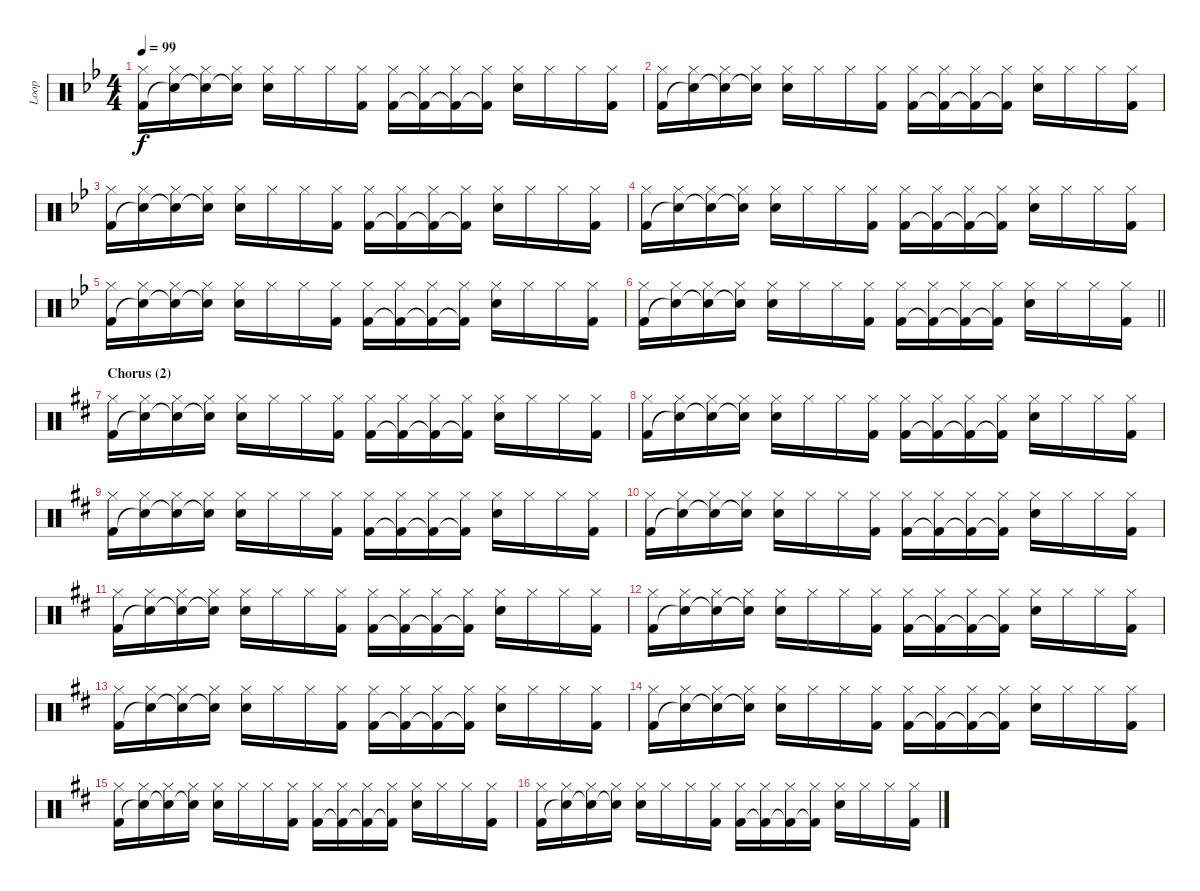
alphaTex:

\track ("Loop" "Loop") {instrument percussion}
\staff {score}
\articulation defaults
\ts (4 4)
\tempo 99
\clef neutral
\ks gminor
("Hi-Hat (closed)" "Kick (hit) 2").16{dy f} ("Hi-Hat (closed)" "Snare (hit)"{t}).16 ("Hi-Hat (closed)" "Snare (hit)"{t}).16 ("Hi-Hat (closed)" "Snare (hit)"{t}).16 ("Hi-Hat (closed)" "Electric Snare (hit)").16 "Hi-Hat (closed)".16 "Hi-Hat (closed)".16 ("Hi-Hat (closed)" "Kick (hit) 2").16 ("Hi-Hat (closed)" "Kick (hit) 2").16 ("Hi-Hat (closed)" "Kick (hit) 2"{t}).16 ("Hi-Hat (closed)" "Kick (hit) 2"{t}).16 ("Hi-Hat (closed)" "Kick (hit) 2"{t}).16 ("Hi-Hat (closed)" "Electric Snare (hit)").16 "Hi-Hat (closed)".16 "Hi-Hat (closed)".16 ("Hi-Hat (closed)" "Kick (hit) 2").16 |
("Hi-Hat (closed)" "Kick (hit) 2").16 ("Hi-Hat (closed)" "Snare (hit)"{t}).16 ("Hi-Hat (closed)" "Snare (hit)"{t}).16 ("Hi-Hat (closed)" "Snare (hit)"{t}).16 ("Hi-Hat (closed)" "Electric Snare (hit)").16 "Hi-Hat (closed)".16 "Hi-Hat (closed)".16 ("Hi-Hat (closed)" "Kick (hit) 2").16 ("Hi-Hat (closed)" "Kick (hit) 2").16 ("Hi-Hat (closed)" "Kick (hit) 2"{t}).16 ("Hi-Hat (closed)" "Kick (hit) 2"{t}).16 ("Hi-Hat (closed)" "Kick (hit) 2"{t}).16 ("Hi-Hat (closed)" "Electric Snare (hit)").16 "Hi-Hat (closed)".16 "Hi-Hat (closed)".16 ("Hi-Hat (closed)" "Kick (hit) 2").16 |
("Hi-Hat (closed)" "Kick (hit) 2").16 ("Hi-Hat (closed)" "Snare (hit)"{t}).16 ("Hi-Hat (closed)" "Snare (hit)"{t}).16 ("Hi-Hat (closed)" "Snare (hit)"{t}).16 ("Hi-Hat (closed)" "Electric Snare (hit)").16 "Hi-Hat (closed)".16 "Hi-Hat (closed)".16 ("Hi-Hat (closed)" "Kick (hit) 2").16 ("Hi-Hat (closed)" "Kick (hit) 2").16 ("Hi-Hat (closed)" "Kick (hit) 2"{t}).16 ("Hi-Hat (closed)" "Kick (hit) 2"{t}).16 ("Hi-Hat (closed)" "Kick (hit) 2"{t}).16 ("Hi-Hat (closed)" "Electric Snare (hit)").16 "Hi-Hat (closed)".16 "Hi-Hat (closed)".16 ("Hi-Hat (closed)" "Kick (hit) 2").16 |
("Hi-Hat (closed)" "Kick (hit) 2").16 ("Hi-Hat (closed)" "Snare (hit)"{t}).16 ("Hi-Hat (closed)" "Snare (hit)"{t}).16 ("Hi-Hat (closed)" "Snare (hit)"{t}).16 ("Hi-Hat (closed)" "Electric Snare (hit)").16 "Hi-Hat (closed)".16 "Hi-Hat (closed)".16 ("Hi-Hat (closed)" "Kick (hit) 2").16 ("Hi-Hat (closed)" "Kick (hit) 2").16 ("Hi-Hat (closed)" "Kick (hit) 2"{t}).16 ("Hi-Hat (closed)" "Kick (hit) 2"{t}).16 ("Hi-Hat (closed)" "Kick (hit) 2"{t}).16 ("Hi-Hat (closed)" "Electric Snare (hit)").16 "Hi-Hat (closed)".16 "Hi-Hat (closed)".16 ("Hi-Hat (closed)" "Kick (hit) 2").16 |
("Hi-Hat (closed)" "Kick (hit) 2").16 ("Hi-Hat (closed)" "Snare (hit)"{t}).16 ("Hi-Hat (closed)" "Snare (hit)"{t}).16 ("Hi-Hat (closed)" "Snare (hit)"{t}).16 ("Hi-Hat (closed)" "Electric Snare (hit)").16 "Hi-Hat (closed)".16 "Hi-Hat (closed)".16 ("Hi-Hat (closed)" "Kick (hit) 2").16 ("Hi-Hat (closed)" "Kick (hit) 2").16 ("Hi-Hat (closed)" "Kick (hit) 2"{t}).16 ("Hi-Hat (closed)" "Kick (hit) 2"{t}).16 ("Hi-Hat (closed)" "Kick (hit) 2"{t}).16 ("Hi-Hat (closed)" "Electric Snare (hit)").16 "Hi-Hat (closed)".16 "Hi-Hat (closed)".16 ("Hi-Hat (closed)" "Kick (hit) 2").16 |
\barLineRight lightlight
("Hi-Hat (closed)" "Kick (hit) 2").16 ("Hi-Hat (closed)" "Snare (hit)"{t}).16 ("Hi-Hat (closed)" "Snare (hit)"{t}).16 ("Hi-Hat (closed)" "Snare (hit)"{t}).16 ("Hi-Hat (closed)" "Electric Snare (hit)").16 "Hi-Hat (closed)".16 "Hi-Hat (closed)".16 ("Hi-Hat (closed)" "Kick (hit) 2").16 ("Hi-Hat (closed)" "Kick (hit) 2").16 ("Hi-Hat (closed)" "Kick (hit) 2"{t}).16 ("Hi-Hat (closed)" "Kick (hit) 2"{t}).16 ("Hi-Hat (closed)" "Kick (hit) 2"{t}).16 ("Hi-Hat (closed)" "Electric Snare (hit)").16 "Hi-Hat (closed)".16 "Hi-Hat (closed)".16 ("Hi-Hat (closed)" "Kick (hit) 2").16 |
\section ("" "Chorus (2)")
\ks d
("Hi-Hat (closed)" "Kick (hit) 2").16 ("Hi-Hat (closed)" "Snare (hit)"{t}).16 ("Hi-Hat (closed)" "Snare (hit)"{t}).16 ("Hi-Hat (closed)" "Snare (hit)"{t}).16 ("Hi-Hat (closed)" "Electric Snare (hit)").16 "Hi-Hat (closed)".16 "Hi-Hat (closed)".16 ("Hi-Hat (closed)" "Kick (hit) 2").16 ("Hi-Hat (closed)" "Kick (hit) 2").16 ("Hi-Hat (closed)" "Kick (hit) 2"{t}).16 ("Hi-Hat (closed)" "Kick (hit) 2"{t}).16 ("Hi-Hat (closed)" "Kick (hit) 2"{t}).16 ("Hi-Hat (closed)" "Electric Snare (hit)").16 "Hi-Hat (closed)".16 "Hi-Hat (closed)".16 ("Hi-Hat (closed)" "Kick (hit) 2").16 |
("Hi-Hat (closed)" "Kick (hit) 2").16 ("Hi-Hat (closed)" "Snare (hit)"{t}).16 ("Hi-Hat (closed)" "Snare (hit)"{t}).16 ("Hi-Hat (closed)" "Snare (hit)"{t}).16 ("Hi-Hat (closed)" "Electric Snare (hit)").16 "Hi-Hat (closed)".16 "Hi-Hat (closed)".16 ("Hi-Hat (closed)" "Kick (hit) 2").16 ("Hi-Hat (closed)" "Kick (hit) 2").16 ("Hi-Hat (closed)" "Kick (hit) 2"{t}).16 ("Hi-Hat (closed)" "Kick (hit) 2"{t}).16 ("Hi-Hat (closed)" "Kick (hit) 2"{t}).16 ("Hi-Hat (closed)" "Electric Snare (hit)").16 "Hi-Hat (closed)".16 "Hi-Hat (closed)".16 ("Hi-Hat (closed)" "Kick (hit) 2").16 |
("Hi-Hat (closed)" "Kick (hit) 2").16 ("Hi-Hat (closed)" "Snare (hit)"{t}).16 ("Hi-Hat (closed)" "Snare (hit)"{t}).16 ("Hi-Hat (closed)" "Snare (hit)"{t}).16 ("Hi-Hat (closed)" "Electric Snare (hit)").16 "Hi-Hat (closed)".16 "Hi-Hat (closed)".16 ("Hi-Hat (closed)" "Kick (hit) 2").16 ("Hi-Hat (closed)" "Kick (hit) 2").16 ("Hi-Hat (closed)" "Kick (hit) 2"{t}).16 ("Hi-Hat (closed)" "Kick (hit) 2"{t}).16 ("Hi-Hat (closed)" "Kick (hit) 2"{t}).16 ("Hi-Hat (closed)" "Electric Snare (hit)").16 "Hi-Hat (closed)".16 "Hi-Hat (closed)".16 ("Hi-Hat (closed)" "Kick (hit) 2").16 |
("Hi-Hat (closed)" "Kick (hit) 2").16 ("Hi-Hat (closed)" "Snare (hit)"{t}).16 ("Hi-Hat (closed)" "Snare (hit)"{t}).16 ("Hi-Hat (closed)" "Snare (hit)"{t}).16 ("Hi-Hat (closed)" "Electric Snare (hit)").16 "Hi-Hat (closed)".16 "Hi-Hat (closed)".16 ("Hi-Hat (closed)" "Kick (hit) 2").16 ("Hi-Hat (closed)" "Kick (hit) 2").16 ("Hi-Hat (closed)" "Kick (hit) 2"{t}).16 ("Hi-Hat (closed)" "Kick (hit) 2"{t}).16 ("Hi-Hat (closed)" "Kick (hit) 2"{t}).16 ("Hi-Hat (closed)" "Electric Snare (hit)").16 "Hi-Hat (closed)".16 "Hi-Hat (closed)".16 ("Hi-Hat (closed)" "Kick (hit) 2").16 |
("Hi-Hat (closed)" "Kick (hit) 2").16 ("Hi-Hat (closed)" "Snare (hit)"{t}).16 ("Hi-Hat (closed)" "Snare (hit)"{t}).16 ("Hi-Hat (closed)" "Snare (hit)"{t}).16 ("Hi-Hat (closed)" "Electric Snare (hit)").16 "Hi-Hat (closed)".16 "Hi-Hat (closed)".16 ("Hi-Hat (closed)" "Kick (hit) 2").16 ("Hi-Hat (closed)" "Kick (hit) 2").16 ("Hi-Hat (closed)" "Kick (hit) 2"{t}).16 ("Hi-Hat (closed)" "Kick (hit) 2"{t}).16 ("Hi-Hat (closed)" "Kick (hit) 2"{t}).16 ("Hi-Hat (closed)" "Electric Snare (hit)").16 "Hi-Hat (closed)".16 "Hi-Hat (closed)".16 ("Hi-Hat (closed)" "Kick (hit) 2").16 |
("Hi-Hat (closed)" "Kick (hit) 2").16 ("Hi-Hat (closed)" "Snare (hit)"{t}).16 ("Hi-Hat (closed)" "Snare (hit)"{t}).16 ("Hi-Hat (closed)" "Snare (hit)"{t}).16 ("Hi-Hat (closed)" "Electric Snare (hit)").16 "Hi-Hat (closed)".16 "Hi-Hat (closed)".16 ("Hi-Hat (closed)" "Kick (hit) 2").16 ("Hi-Hat (closed)" "Kick (hit) 2").16 ("Hi-Hat (closed)" "Kick (hit) 2"{t}).16 ("Hi-Hat (closed)" "Kick (hit) 2"{t}).16 ("Hi-Hat (closed)" "Kick (hit) 2"{t}).16 ("Hi-Hat (closed)" "Electric Snare (hit)").16 "Hi-Hat (closed)".16 "Hi-Hat (closed)".16 ("Hi-Hat (closed)" "Kick (hit) 2").16 |
("Hi-Hat (closed)" "Kick (hit) 2").16 ("Hi-Hat (closed)" "Snare (hit)"{t}).16 ("Hi-Hat (closed)" "Snare (hit)"{t}).16 ("Hi-Hat (closed)" "Snare (hit)"{t}).16 ("Hi-Hat (closed)" "Electric Snare (hit)").16 "Hi-Hat (closed)".16 "Hi-Hat (closed)".16 ("Hi-Hat (closed)" "Kick (hit) 2").16 ("Hi-Hat (closed)" "Kick (hit) 2").16 ("Hi-Hat (closed)" "Kick (hit) 2"{t}).16 ("Hi-Hat (closed)" "Kick (hit) 2"{t}).16 ("Hi-Hat (closed)" "Kick (hit) 2"{t}).16 ("Hi-Hat (closed)" "Electric Snare (hit)").16 "Hi-Hat (closed)".16 "Hi-Hat (closed)".16 ("Hi-Hat (closed)" "Kick (hit) 2").16 |
("Hi-Hat (closed)" "Kick (hit) 2").16 ("Hi-Hat (closed)" "Snare (hit)"{t}).16 ("Hi-Hat (closed)" "Snare (hit)"{t}).16 ("Hi-Hat (closed)" "Snare (hit)"{t}).16 ("Hi-Hat (closed)" "Electric Snare (hit)").16 "Hi-Hat (closed)".16 "Hi-Hat (closed)".16 ("Hi-Hat (closed)" "Kick (hit) 2").16 ("Hi-Hat (closed)" "Kick (hit) 2").16 ("Hi-Hat (closed)" "Kick (hit) 2"{t}).16 ("Hi-Hat (closed)" "Kick (hit) 2"{t}).16 ("Hi-Hat (closed)" "Kick (hit) 2"{t}).16 ("Hi-Hat (closed)" "Electric Snare (hit)").16 "Hi-Hat (closed)".16 "Hi-Hat (closed)".16 ("Hi-Hat (closed)" "Kick (hit) 2").16 |
("Hi-Hat (closed)" "Kick (hit) 2").16 ("Hi-Hat (closed)" "Snare (hit)"{t}).16 ("Hi-Hat (closed)" "Snare (hit)"{t}).16 ("Hi-Hat (closed)" "Snare (hit)"{t}).16 ("Hi-Hat (closed)" "Electric Snare (hit)").16 "Hi-Hat (closed)".16 "Hi-Hat (closed)".16 ("Hi-Hat (closed)" "Kick (hit) 2").16 ("Hi-Hat (closed)" "Kick (hit) 2").16 ("Hi-Hat (closed)" "Kick (hit) 2"{t}).16 ("Hi-Hat (closed)" "Kick (hit) 2"{t}).16 ("Hi-Hat (closed)" "Kick (hit) 2"{t}).16 ("Hi-Hat (closed)" "Electric Snare (hit)").16 "Hi-Hat (closed)".16 "Hi-Hat (closed)".16 ("Hi-Hat (closed)" "Kick (hit) 2").16 |
("Hi-Hat (closed)" "Kick (hit) 2").16 ("Hi-Hat (closed)" "Snare (hit)"{t}).16 ("Hi-Hat (closed)" "Snare (hit)"{t}).16 ("Hi-Hat (closed)" "Snare (hit)"{t}).16 ("Hi-Hat (closed)" "Electric Snare (hit)").16 "Hi-Hat (closed)".16 "Hi-Hat (closed)".16 ("Hi-Hat (closed)" "Kick (hit) 2").16 ("Hi-Hat (closed)" "Kick (hit) 2").16 ("Hi-Hat (closed)" "Kick (hit) 2"{t}).16 ("Hi-Hat (closed)" "Kick (hit) 2"{t}).16 ("Hi-Hat (closed)" "Kick (hit) 2"{t}).16 ("Hi-Hat (closed)" "Electric Snare (hit)").16 "Hi-Hat (closed)".16 "Hi-Hat (closed)".16 ("Hi-Hat (closed)" "Kick (hit) 2").16
